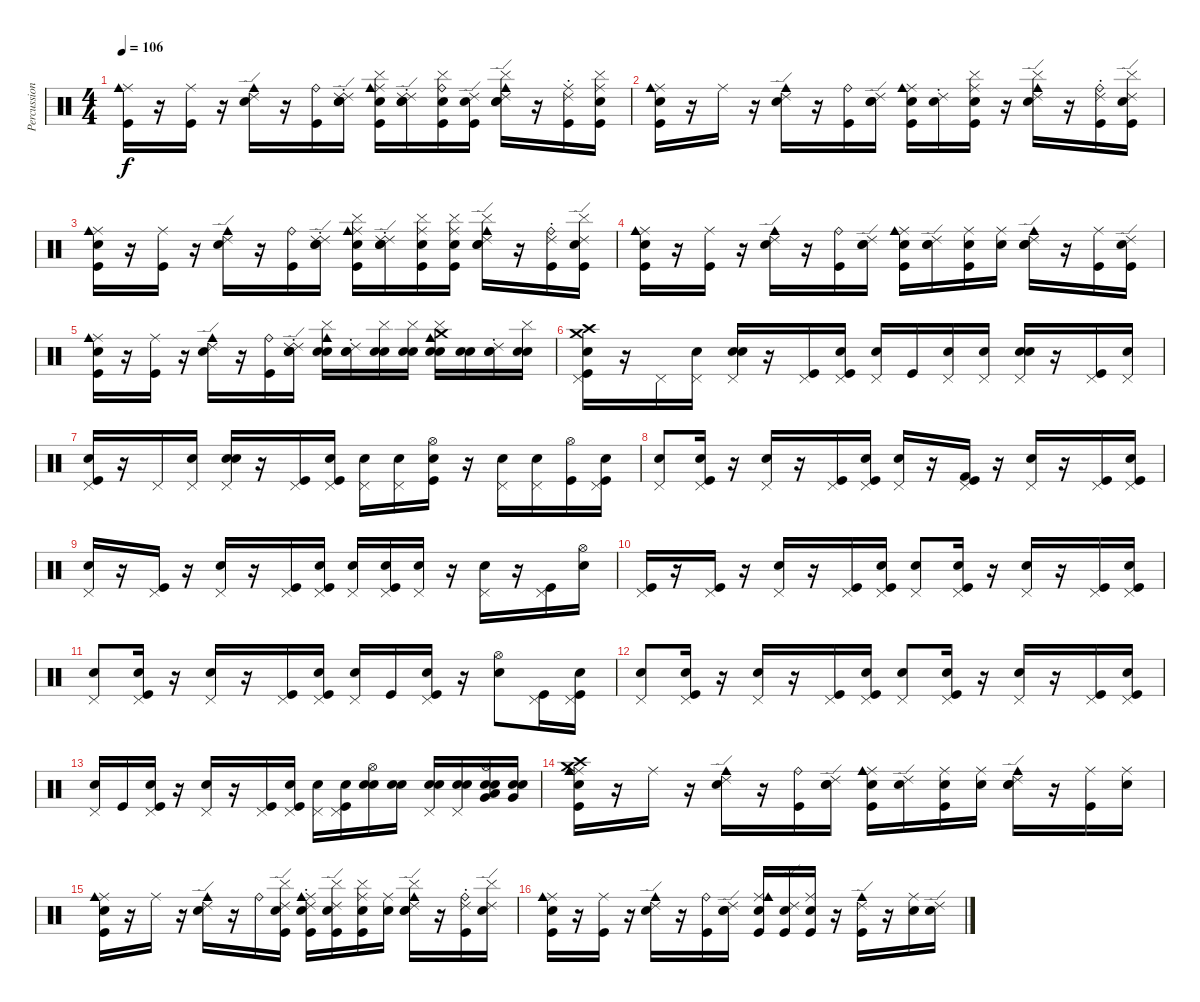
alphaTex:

\track ("Percussions (Zaac)" "Percussion") {instrument percussion}
\staff {score}
\articulation defaults
\ts (4 4)
\tempo 106
\clef neutral
\ks c
("Kick (hit)" "Ride (middle)" "Cowbell medium (hit)").16{dy f} r.16 ("Kick (hit)" "Ride (middle)").16 r.16 ("Electric Snare (hit)" "Cowbell medium (hit)" "Ride (edge) 2").16 r.16 ("Kick (hit)" "Ride (bell)").16 ("Snare (hit)" "Ride (choke) 2" "Electric Snare (hit)" "Ride (edge) 2").16 ("Snare (hit)" "Cymbal (hit)" "Kick (hit)" "Ride (middle)" "Cowbell medium (hit)").16 ("Snare (hit)" "Ride (choke) 2" "Electric Snare (hit)" "Ride (edge) 2").16 ("Snare (hit)" "Cymbal (hit)" "Kick (hit)" "Ride (bell)").16 ("Snare (hit)" "Kick (hit)" "Ride (edge) 2").16 ("Snare (hit)" "Cymbal (hit)" "Electric Snare (hit)" "Cowbell medium (hit)" "Ride (edge) 2").16 r.16 ("Ride (choke) 2" "Kick (hit)" "Ride (middle)").16 ("Snare (hit)" "Cymbal (hit)" "Kick (hit)" "Ride (middle)").16 |
("Snare (hit)" "Kick (hit)" "Ride (middle)" "Cowbell medium (hit)").16 r.16 "Ride (middle)".16 r.16 ("Electric Snare (hit)" "Cowbell medium (hit)" "Ride (edge) 2").16 r.16 ("Kick (hit)" "Ride (bell)").16 ("Snare (hit)" "Electric Snare (hit)" "Ride (edge) 2").16 ("Snare (hit)" "Kick (hit)" "Ride (middle)" "Cowbell medium (hit)").16 ("Snare (hit)" "Ride (choke) 2").16 ("Snare (hit)" "Cymbal (hit)" "Kick (hit)" "Ride (middle)").16 r.16 ("Cymbal (hit)" "Electric Snare (hit)" "Cowbell medium (hit)" "Ride (edge) 2").16 r.16 ("Ride (choke) 2" "Kick (hit)" "Ride (bell)").16 ("Snare (hit)" "Cymbal (hit)" "Kick (hit)" "Ride (edge) 2").16 |
("Snare (hit)" "Kick (hit)" "Ride (middle)" "Cowbell medium (hit)").16 r.16 ("Kick (hit)" "Ride (middle)").16 r.16 ("Electric Snare (hit)" "Cowbell medium (hit)" "Ride (edge) 2").16 r.16 ("Kick (hit)" "Ride (bell)").16 ("Snare (hit)" "Ride (choke) 2" "Electric Snare (hit)" "Ride (edge) 2").16 ("Snare (hit)" "Cymbal (hit)" "Kick (hit)" "Ride (middle)" "Cowbell medium (hit)").16 ("Snare (hit)" "Ride (choke) 2" "Electric Snare (hit)" "Ride (edge) 2").16 ("Snare (hit)" "Cymbal (hit)" "Kick (hit)" "Ride (middle)").16 ("Snare (hit)" "Cymbal (hit)" "Kick (hit)" "Ride (middle)").16 ("Snare (hit)" "Cymbal (hit)" "Electric Snare (hit)" "Cowbell medium (hit)" "Ride (edge) 2").16 r.16 ("Ride (choke) 2" "Kick (hit)" "Ride (bell)").16 ("Snare (hit)" "Cymbal (hit)" "Kick (hit)" "Ride (edge) 2").16 |
("Snare (hit)" "Kick (hit)" "Ride (middle)" "Cowbell medium (hit)").16 r.16 ("Kick (hit)" "Ride (middle)").16 r.16 ("Electric Snare (hit)" "Cowbell medium (hit)" "Ride (edge) 2").16 r.16 ("Kick (hit)" "Ride (bell)").16 ("Snare (hit)" "Electric Snare (hit)" "Ride (edge) 2").16 ("Snare (hit)" "Kick (hit)" "Ride (middle)" "Cowbell medium (hit)").16 ("Snare (hit)" "Electric Snare (hit)" "Ride (edge) 2").16 ("Snare (hit)" "Kick (hit)" "Ride (middle)").16 ("Snare (hit)" "Ride (middle)").16 ("Snare (hit)" "Electric Snare (hit)" "Cowbell medium (hit)" "Ride (edge) 2").16 r.16 ("Kick (hit)" "Ride (middle)").16 ("Snare (hit)" "Kick (hit)" "Ride (edge) 2").16 |
("Snare (hit)" "Kick (hit)" "Ride (middle)" "Cowbell medium (hit)").16 r.16 ("Kick (hit)" "Ride (middle)").16 r.16 ("Electric Snare (hit)" "Cowbell medium (hit)" "Ride (edge) 2").16 r.16 ("Kick (hit)" "Ride (bell)").16 ("Snare (hit)" "Ride (choke) 2" "Electric Snare (hit)" "Ride (edge) 2").16 ("Snare (hit)" "Cymbal (hit)" "Electric Snare (hit)" "Cowbell medium (hit)").16 ("Snare (hit)" "Ride (choke) 2" "Electric Snare (hit)").16 ("Snare (hit)" "Cymbal (hit)" "Electric Snare (hit)").16 ("Snare (hit)" "Cymbal (hit)" "Electric Snare (hit)").16 ("Snare (hit)" "Cymbal (hit)" "Electric Snare (hit)" "Cowbell medium (hit)" "Crash medium (hit)").16 ("Snare (hit)" "Electric Snare (hit)").16 ("Snare (hit)" "Ride (choke) 2" "Electric Snare (hit)").16 ("Snare (hit)" "Cymbal (hit)" "Electric Snare (hit)").16 |
("Snare (hit)" "Kick (hit)" "Pedal Hi-Hat (hit)" "Crash high (hit)" "Crash medium (hit)").16 r.16 "Pedal Hi-Hat (hit)".16 ("Snare (hit)" "Pedal Hi-Hat (hit)").16 ("Snare (hit)" "Electric Snare (hit)" "Pedal Hi-Hat (hit)").16 r.16 ("Kick (hit)" "Pedal Hi-Hat (hit)").16 ("Snare (hit)" "Kick (hit)" "Pedal Hi-Hat (hit)").16 ("Snare (hit)" "Pedal Hi-Hat (hit)").16 "Kick (hit)".16 ("Snare (hit)" "Pedal Hi-Hat (hit)").16 ("Snare (hit)" "Pedal Hi-Hat (hit)").16 ("Snare (hit)" "Electric Snare (hit)" "Pedal Hi-Hat (hit)").16 r.16 ("Kick (hit)" "Pedal Hi-Hat (hit)").16 ("Snare (hit)" "Pedal Hi-Hat (hit)").16 |
("Snare (hit)" "Kick (hit)" "Pedal Hi-Hat (hit)").16 r.16 "Pedal Hi-Hat (hit)".16 ("Snare (hit)" "Pedal Hi-Hat (hit)").16 ("Snare (hit)" "Electric Snare (hit)" "Pedal Hi-Hat (hit)").16 r.16 ("Kick (hit)" "Pedal Hi-Hat (hit)").16 ("Snare (hit)" "Kick (hit)" "Pedal Hi-Hat (hit)").16 ("Snare (hit)" "Pedal Hi-Hat (hit)").16 ("Snare (hit)" "Pedal Hi-Hat (hit)").16 ("Snare (hit)" "Kick (hit)" "Hi-Hat (open)").16 r.16 ("Electric Snare (hit)" "Pedal Hi-Hat (hit)").16 ("Snare (hit)" "Pedal Hi-Hat (hit)").16 ("Kick (hit)" "Hi-Hat (open)").16 ("Snare (hit)" "Kick (hit)" "Pedal Hi-Hat (hit)").16 |
("Snare (hit)" "Pedal Hi-Hat (hit)").8 ("Snare (hit)" "Kick (hit)" "Pedal Hi-Hat (hit)").16 r.16 ("Electric Snare (hit)" "Pedal Hi-Hat (hit)").16 r.16 ("Kick (hit)" "Pedal Hi-Hat (hit)").16 ("Snare (hit)" "Kick (hit)" "Pedal Hi-Hat (hit)").16 ("Snare (hit)" "Pedal Hi-Hat (hit)").16 r.16 ("Kick (hit)" "Kick (hit) 2" "Pedal Hi-Hat (hit)").16 r.16 ("Electric Snare (hit)" "Pedal Hi-Hat (hit)").16 r.16 ("Kick (hit)" "Pedal Hi-Hat (hit)").16 ("Snare (hit)" "Kick (hit)" "Pedal Hi-Hat (hit)").16 |
("Snare (hit)" "Pedal Hi-Hat (hit)").16 r.16 ("Kick (hit)" "Pedal Hi-Hat (hit)").16 r.16 ("Electric Snare (hit)" "Pedal Hi-Hat (hit)").16 r.16 ("Kick (hit)" "Pedal Hi-Hat (hit)").16 ("Snare (hit)" "Kick (hit)" "Pedal Hi-Hat (hit)").16 ("Snare (hit)" "Pedal Hi-Hat (hit)").16 ("Snare (hit)" "Kick (hit)" "Pedal Hi-Hat (hit)").16 ("Snare (hit)" "Pedal Hi-Hat (hit)").16 r.16 ("Electric Snare (hit)" "Pedal Hi-Hat (hit)").16 r.16 ("Kick (hit)" "Pedal Hi-Hat (hit)").16 ("Snare (hit)" "Hi-Hat (open)").16 |
("Kick (hit)" "Pedal Hi-Hat (hit)").16 r.16 ("Kick (hit)" "Pedal Hi-Hat (hit)").16 r.16 ("Electric Snare (hit)" "Pedal Hi-Hat (hit)").16 r.16 ("Kick (hit)" "Pedal Hi-Hat (hit)").16 ("Snare (hit)" "Kick (hit)" "Pedal Hi-Hat (hit)").16 ("Snare (hit)" "Pedal Hi-Hat (hit)").8 ("Snare (hit)" "Kick (hit)" "Pedal Hi-Hat (hit)").16 r.16 ("Electric Snare (hit)" "Pedal Hi-Hat (hit)").16 r.16 ("Kick (hit)" "Pedal Hi-Hat (hit)").16 ("Snare (hit)" "Kick (hit)" "Pedal Hi-Hat (hit)").16 |
("Snare (hit)" "Pedal Hi-Hat (hit)").8 ("Snare (hit)" "Kick (hit)" "Pedal Hi-Hat (hit)").16 r.16 ("Electric Snare (hit)" "Pedal Hi-Hat (hit)").16 r.16 ("Kick (hit)" "Pedal Hi-Hat (hit)").16 ("Snare (hit)" "Kick (hit)" "Pedal Hi-Hat (hit)").16 ("Snare (hit)" "Pedal Hi-Hat (hit)").16 "Kick (hit)".16 ("Snare (hit)" "Kick (hit)" "Pedal Hi-Hat (hit)").16 r.16 ("Electric Snare (hit)" "Hi-Hat (open)").8 ("Kick (hit)" "Pedal Hi-Hat (hit)").16 ("Snare (hit)" "Kick (hit)" "Pedal Hi-Hat (hit)").16 |
("Snare (hit)" "Pedal Hi-Hat (hit)").8 ("Snare (hit)" "Kick (hit)" "Pedal Hi-Hat (hit)").16 r.16 ("Electric Snare (hit)" "Pedal Hi-Hat (hit)").16 r.16 ("Kick (hit)" "Pedal Hi-Hat (hit)").16 ("Snare (hit)" "Kick (hit)" "Pedal Hi-Hat (hit)").16 ("Snare (hit)" "Pedal Hi-Hat (hit)").8 ("Snare (hit)" "Kick (hit)" "Pedal Hi-Hat (hit)").16 r.16 ("Electric Snare (hit)" "Pedal Hi-Hat (hit)").16 r.16 ("Kick (hit)" "Pedal Hi-Hat (hit)").16 ("Snare (hit)" "Kick (hit)" "Pedal Hi-Hat (hit)").16 |
("Snare (hit)" "Pedal Hi-Hat (hit)").16 "Kick (hit)".16 ("Snare (hit)" "Kick (hit)" "Pedal Hi-Hat (hit)").16 r.16 ("Electric Snare (hit)" "Pedal Hi-Hat (hit)").16 r.16 ("Kick (hit)" "Pedal Hi-Hat (hit)").16 ("Snare (hit)" "Kick (hit)" "Pedal Hi-Hat (hit)").16 ("Snare (hit)" "Pedal Hi-Hat (hit)").16 ("Snare (hit)" "Kick (hit)" "Pedal Hi-Hat (hit)").16 ("Snare (hit)" "Electric Snare (hit)" "Hi-Hat (open)").16 ("Snare (hit)" "Electric Snare (hit)").16 ("Snare (hit)" "Electric Snare (hit)" "Pedal Hi-Hat (hit)").16 ("Snare (hit)" "Electric Snare (hit)" "Pedal Hi-Hat (hit)").16 ("Snare (hit)" "Electric Snare (hit)" "Very Low Tom (hit)" "Low Tom (hit)" "Hi-Hat (open)").16 ("Snare (hit)" "Electric Snare (hit)" "Very Low Tom (hit)").16 |
("Snare (hit)" "Kick (hit)" "Crash high (hit)" "Ride (middle)" "Cowbell medium (hit)" "Crash medium (hit)").16 r.16 "Ride (middle)".16 r.16 ("Electric Snare (hit)" "Cowbell medium (hit)" "Ride (edge) 2").16 r.16 ("Kick (hit)" "Ride (bell)").16 ("Snare (hit)" "Electric Snare (hit)" "Ride (edge) 2").16 ("Snare (hit)" "Kick (hit)" "Ride (middle)" "Cowbell medium (hit)").16 ("Snare (hit)" "Ride (edge) 2").16 ("Snare (hit)" "Kick (hit)" "Ride (middle)").16 ("Snare (hit)" "Ride (middle)").16 ("Snare (hit)" "Electric Snare (hit)" "Cowbell medium (hit)" "Ride (edge) 2").16 r.16 ("Kick (hit)" "Ride (middle)").16 ("Snare (hit)" "Ride (middle)").16 |
("Snare (hit)" "Kick (hit)" "Ride (middle)" "Cowbell medium (hit)").16 r.16 "Ride (middle)".16 r.16 ("Electric Snare (hit)" "Cowbell medium (hit)" "Ride (edge) 2").16 r.16 "Ride (bell)".16 ("Snare (hit)" "Cymbal (hit)" "Kick (hit)" "Ride (edge) 2").16 ("Snare (hit)" "Ride (choke) 2" "Kick (hit)" "Ride (middle)" "Cowbell medium (hit)").16 ("Snare (hit)" "Cymbal (hit)" "Kick (hit)" "Ride (edge) 2").16 ("Snare (hit)" "Cymbal (hit)" "Kick (hit)" "Ride (middle)").16 ("Snare (hit)" "Ride (middle)").16 ("Snare (hit)" "Cymbal (hit)" "Electric Snare (hit)" "Cowbell medium (hit)" "Ride (edge) 2").16 r.16 ("Ride (choke) 2" "Kick (hit)" "Ride (bell)").16 ("Snare (hit)" "Cymbal (hit)" "Ride (edge) 2").16 |
("Snare (hit)" "Kick (hit)" "Ride (middle)" "Cowbell medium (hit)").16 r.16 ("Kick (hit)" "Ride (middle)").16 r.16 ("Electric Snare (hit)" "Cowbell medium (hit)" "Ride (edge) 2").16 r.16 ("Kick (hit)" "Ride (bell)").16 ("Snare (hit)" "Electric Snare (hit)" "Ride (edge) 2").16 ("Snare (hit)" "Kick (hit)" "Ride (middle)" "Cowbell medium (hit)").16 ("Snare (hit)" "Kick (hit)" "Ride (edge) 2").16 ("Snare (hit)" "Kick (hit)" "Ride (middle)").16 r.16 ("Kick (hit)" "Cowbell medium (hit)" "Ride (edge) 2").16 r.16 ("Electric Snare (hit)" "Ride (middle)").16 ("Snare (hit)" "Ride (edge) 2").16
